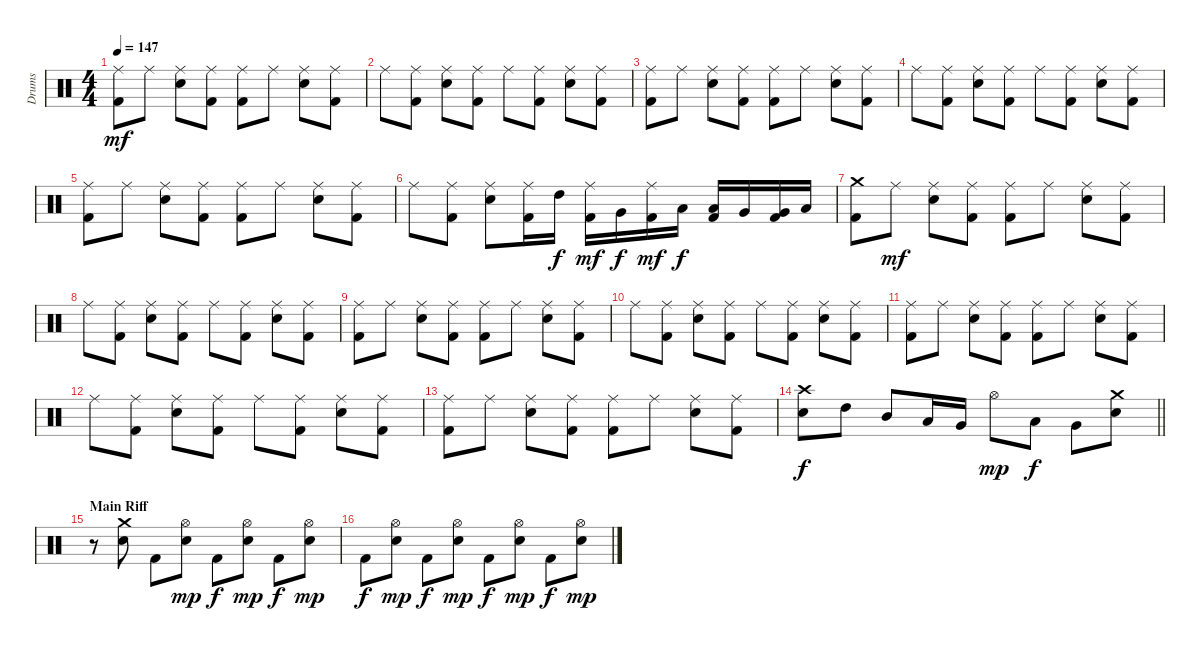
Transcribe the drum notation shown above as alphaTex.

\track ("Drums" "Drums") {instrument percussion}
\staff {score}
\articulation defaults
\ts (4 4)
\tempo 147
\clef neutral
\ks c
("Ride (middle)" "Kick (hit) 2").8{dy mf} "Ride (middle)".8 ("Ride (middle)" "Snare (hit) 2").8 ("Ride (middle)" "Kick (hit) 2").8 ("Ride (middle)" "Kick (hit) 2").8 "Ride (middle)".8 ("Ride (middle)" "Snare (hit) 2").8 ("Ride (middle)" "Kick (hit) 2").8 |
"Ride (middle)".8 ("Ride (middle)" "Kick (hit) 2").8 ("Ride (middle)" "Snare (hit) 2").8 ("Ride (middle)" "Kick (hit) 2").8 "Ride (middle)".8 ("Ride (middle)" "Kick (hit) 2").8 ("Ride (middle)" "Snare (hit) 2").8 ("Ride (middle)" "Kick (hit) 2").8 |
("Ride (middle)" "Kick (hit) 2").8 "Ride (middle)".8 ("Ride (middle)" "Snare (hit) 2").8 ("Ride (middle)" "Kick (hit) 2").8 ("Ride (middle)" "Kick (hit) 2").8 "Ride (middle)".8 ("Ride (middle)" "Snare (hit) 2").8 ("Ride (middle)" "Kick (hit) 2").8 |
"Ride (middle)".8 ("Ride (middle)" "Kick (hit) 2").8 ("Ride (middle)" "Snare (hit) 2").8 ("Ride (middle)" "Kick (hit) 2").8 "Ride (middle)".8 ("Ride (middle)" "Kick (hit) 2").8 ("Ride (middle)" "Snare (hit) 2").8 ("Ride (middle)" "Kick (hit) 2").8 |
("Ride (middle)" "Kick (hit) 2").8 "Ride (middle)".8 ("Ride (middle)" "Snare (hit) 2").8 ("Ride (middle)" "Kick (hit) 2").8 ("Ride (middle)" "Kick (hit) 2").8 "Ride (middle)".8 ("Ride (middle)" "Snare (hit) 2").8 ("Ride (middle)" "Kick (hit) 2").8 |
"Ride (middle)".8 ("Ride (middle)" "Kick (hit) 2").8 ("Ride (middle)" "Snare (hit) 2").8 ("Ride (middle)" "Kick (hit) 2").16 "High Tom (hit)".16{dy f} ("Ride (middle)" "Kick (hit) 2").16{dy mf} "Very Low Tom (hit)".16{dy f} ("Ride (middle)" "Kick (hit) 2").16{dy mf} "Low Tom (hit)".16{dy f} ("Low Tom (hit)" "Kick (hit) 2").16 "Very Low Tom (hit)".16 ("Very Low Tom (hit)" "Kick (hit) 2").16 "Low Floor Tom (hit)".16 |
("Crash medium (hit)" "Kick (hit) 2").8 "Ride (middle)".8{dy mf} ("Ride (middle)" "Snare (hit) 2").8 ("Ride (middle)" "Kick (hit) 2").8 ("Ride (middle)" "Kick (hit) 2").8 "Ride (middle)".8 ("Ride (middle)" "Snare (hit) 2").8 ("Ride (middle)" "Kick (hit) 2").8 |
"Ride (middle)".8 ("Ride (middle)" "Kick (hit) 2").8 ("Ride (middle)" "Snare (hit) 2").8 ("Ride (middle)" "Kick (hit) 2").8 "Ride (middle)".8 ("Ride (middle)" "Kick (hit) 2").8 ("Ride (middle)" "Snare (hit) 2").8 ("Ride (middle)" "Kick (hit) 2").8 |
("Ride (middle)" "Kick (hit) 2").8 "Ride (middle)".8 ("Ride (middle)" "Snare (hit) 2").8 ("Ride (middle)" "Kick (hit) 2").8 ("Ride (middle)" "Kick (hit) 2").8 "Ride (middle)".8 ("Ride (middle)" "Snare (hit) 2").8 ("Ride (middle)" "Kick (hit) 2").8 |
"Ride (middle)".8 ("Ride (middle)" "Kick (hit) 2").8 ("Ride (middle)" "Snare (hit) 2").8 ("Ride (middle)" "Kick (hit) 2").8 "Ride (middle)".8 ("Ride (middle)" "Kick (hit) 2").8 ("Ride (middle)" "Snare (hit) 2").8 ("Ride (middle)" "Kick (hit) 2").8 |
("Ride (middle)" "Kick (hit) 2").8 "Ride (middle)".8 ("Ride (middle)" "Snare (hit) 2").8 ("Ride (middle)" "Kick (hit) 2").8 ("Ride (middle)" "Kick (hit) 2").8 "Ride (middle)".8 ("Ride (middle)" "Snare (hit) 2").8 ("Ride (middle)" "Kick (hit) 2").8 |
"Ride (middle)".8 ("Ride (middle)" "Kick (hit) 2").8 ("Ride (middle)" "Snare (hit) 2").8 ("Ride (middle)" "Kick (hit) 2").8 "Ride (middle)".8 ("Ride (middle)" "Kick (hit) 2").8 ("Ride (middle)" "Snare (hit) 2").8 ("Ride (middle)" "Kick (hit) 2").8 |
("Ride (middle)" "Kick (hit) 2").8 "Ride (middle)".8 ("Ride (middle)" "Snare (hit) 2").8 ("Ride (middle)" "Kick (hit) 2").8 ("Ride (middle)" "Kick (hit) 2").8 "Ride (middle)".8 ("Ride (middle)" "Snare (hit) 2").8 ("Ride (middle)" "Kick (hit) 2").8 |
\barLineRight lightlight
("Crash high (hit)" "Snare (hit) 2").8{dy f} "High Tom (hit)".8 "Mid Tom (hit)".8 "Low Tom (hit)".16 "Very Low Tom (hit)".16 "Hi-Hat (open)".8{dy mp} "Low Tom (hit)".8{dy f} "Very Low Tom (hit)".8 ("Crash medium (hit)" "Snare (hit) 2").8 |
\section ("" "Main Riff")
r.8 ("Crash medium (hit)" "Snare (hit) 2").8 "Kick (hit) 2".8 ("Hi-Hat (open)" "Snare (hit) 2").8{dy mp} "Kick (hit) 2".8{dy f} ("Hi-Hat (open)" "Snare (hit) 2").8{dy mp} "Kick (hit) 2".8{dy f} ("Hi-Hat (open)" "Snare (hit) 2").8{dy mp} |
"Kick (hit) 2".8{dy f} ("Hi-Hat (open)" "Snare (hit) 2").8{dy mp} "Kick (hit) 2".8{dy f} ("Hi-Hat (open)" "Snare (hit) 2").8{dy mp} "Kick (hit) 2".8{dy f} ("Hi-Hat (open)" "Snare (hit) 2").8{dy mp} "Kick (hit) 2".8{dy f} ("Hi-Hat (open)" "Snare (hit) 2").8{dy mp}
